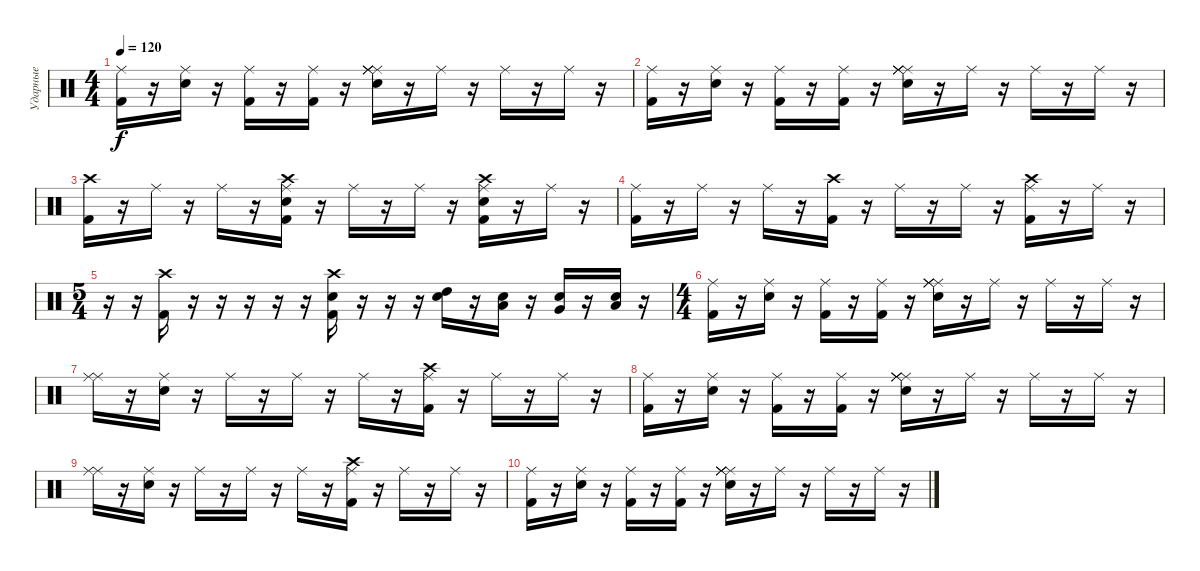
\track ("Ударные" "Ударные") {instrument percussion}
\staff {score}
\articulation defaults
\ts (4 4)
\tempo 120
\clef neutral
\ks c
("Ride (middle)" "Kick (hit) 2").16{dy f} r.16 ("Ride (middle)" "Snare (hit) 2").16 r.16 ("Ride (middle)" "Kick (hit) 2").16 r.16 ("Ride (middle)" "Kick (hit) 2").16 r.16 ("Ride (middle)" "Ride (middle)" "Ride (middle)" "Ride (middle)" "Snare (hit) 2").16 r.16 "Ride (middle)".16 r.16 "Ride (middle)".16 r.16 "Ride (middle)".16 r.16 |
("Ride (middle)" "Kick (hit) 2").16 r.16 ("Ride (middle)" "Snare (hit) 2").16 r.16 ("Ride (middle)" "Kick (hit) 2").16 r.16 ("Ride (middle)" "Kick (hit) 2").16 r.16 ("Ride (middle)" "Ride (middle)" "Ride (middle)" "Ride (middle)" "Snare (hit) 2").16 r.16 "Ride (middle)".16 r.16 "Ride (middle)".16 r.16 "Ride (middle)".16 r.16 |
("Crash high (hit)" "Kick (hit) 2").16 r.16 "Ride (middle)".16 r.16 "Ride (middle)".16 r.16 ("Crash high (hit)" "Snare (hit) 2" "Kick (hit) 2" "Ride (middle)").16 r.16 "Ride (middle)".16 r.16 "Ride (middle)".16 r.16 ("Crash high (hit)" "Kick (hit) 2" "Snare (hit) 2" "Ride (middle)").16 r.16 "Ride (middle)".16 r.16 |
("Ride (middle)" "Kick (hit) 2").16 r.16 "Ride (middle)".16 r.16 "Ride (middle)".16 r.16 ("Kick (hit) 2" "Crash high (hit)").16 r.16 "Ride (middle)".16 r.16 "Ride (middle)".16 r.16 ("Ride (middle)" "Kick (hit) 2" "Crash high (hit)").16 r.16 "Ride (middle)".16 r.16 |
\ts (5 4)
r.16 r.16 ("Crash high (hit)" "Kick (hit) 2").16 r.16 r.16 r.16 r.16 r.16 ("Crash high (hit)" "Kick (hit) 2" "Snare (hit) 2").16 r.16 r.16 r.16 ("Snare (hit) 2" "High Tom (hit)").16 r.16 ("Snare (hit) 2" "Low Tom (hit)").16 r.16 ("Snare (hit) 2" "Very Low Tom (hit)").16 r.16 ("Snare (hit) 2" "Low Floor Tom (hit)").16 r.16 |
\ts (4 4)
("Ride (middle)" "Kick (hit) 2").16 r.16 ("Ride (middle)" "Snare (hit) 2").16 r.16 ("Ride (middle)" "Kick (hit) 2").16 r.16 ("Ride (middle)" "Kick (hit) 2").16 r.16 ("Ride (middle)" "Ride (middle)" "Ride (middle)" "Ride (middle)" "Snare (hit) 2").16 r.16 "Ride (middle)".16 r.16 "Ride (middle)".16 r.16 "Ride (middle)".16 r.16 |
("Ride (middle)" "Ride (middle)").16 r.16 ("Ride (middle)" "Snare (hit) 2").16 r.16 "Ride (middle)".16 r.16 "Ride (middle)".16 r.16 "Ride (middle)".16 r.16 ("Ride (middle)" "Kick (hit) 2" "Crash high (hit)").16 r.16 "Ride (middle)".16 r.16 "Ride (middle)".16 r.16 |
("Ride (middle)" "Kick (hit) 2").16 r.16 ("Ride (middle)" "Snare (hit) 2").16 r.16 ("Ride (middle)" "Kick (hit) 2").16 r.16 ("Ride (middle)" "Kick (hit) 2").16 r.16 ("Ride (middle)" "Ride (middle)" "Ride (middle)" "Ride (middle)" "Snare (hit) 2").16 r.16 "Ride (middle)".16 r.16 "Ride (middle)".16 r.16 "Ride (middle)".16 r.16 |
("Ride (middle)" "Ride (middle)").16 r.16 ("Ride (middle)" "Snare (hit) 2").16 r.16 "Ride (middle)".16 r.16 "Ride (middle)".16 r.16 "Ride (middle)".16 r.16 ("Ride (middle)" "Kick (hit) 2" "Crash high (hit)").16 r.16 "Ride (middle)".16 r.16 "Ride (middle)".16 r.16 |
("Ride (middle)" "Kick (hit) 2").16 r.16 ("Ride (middle)" "Snare (hit) 2").16 r.16 ("Ride (middle)" "Kick (hit) 2").16 r.16 ("Ride (middle)" "Kick (hit) 2").16 r.16 ("Ride (middle)" "Ride (middle)" "Ride (middle)" "Ride (middle)" "Snare (hit) 2").16 r.16 "Ride (middle)".16 r.16 "Ride (middle)".16 r.16 "Ride (middle)".16 r.16
